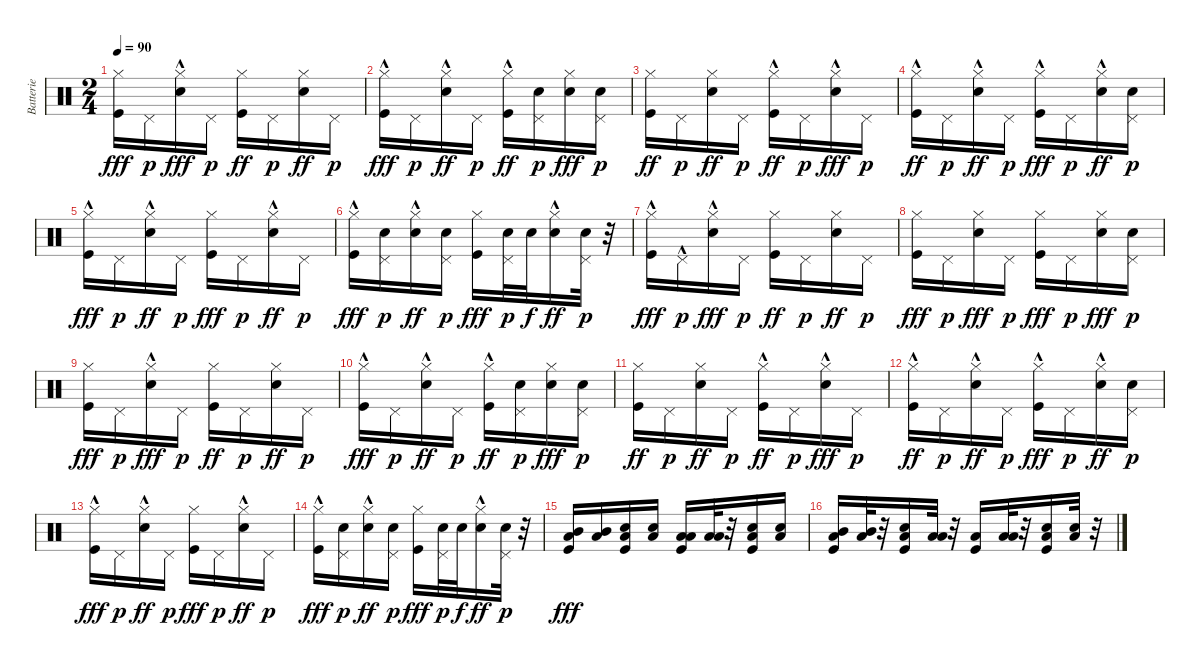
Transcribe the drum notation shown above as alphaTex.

\track ("Batterie" "Batterie") {instrument percussion}
\staff {score}
\articulation defaults
\ts (2 4)
\tempo 90
\clef neutral
\ks c
("Kick (hit)" "Hi-Hat (closed)").16{dy fff} "Pedal Hi-Hat (hit)".16{dy p} ("Snare (hit) 2" "Hi-Hat (closed)"{hac}).16{dy fff} "Pedal Hi-Hat (hit)".16{dy p} ("Kick (hit)" "Hi-Hat (closed)").16{dy ff} "Pedal Hi-Hat (hit)".16{dy p} ("Snare (hit) 2" "Hi-Hat (closed)").16{dy ff} "Pedal Hi-Hat (hit)".16{dy p} |
("Kick (hit)" "Hi-Hat (closed)"{hac}).16{dy fff} "Pedal Hi-Hat (hit)".16{dy p} ("Snare (hit) 2" "Hi-Hat (closed)"{hac}).16{dy ff} "Pedal Hi-Hat (hit)".16{dy p} ("Kick (hit)" "Hi-Hat (closed)"{hac}).16{dy ff} ("Snare (hit) 2" "Pedal Hi-Hat (hit)").16{dy p} ("Snare (hit) 2" "Hi-Hat (closed)").16{dy fff} ("Snare (hit) 2" "Pedal Hi-Hat (hit)").16{dy p} |
("Kick (hit)" "Hi-Hat (closed)").16{dy ff} "Pedal Hi-Hat (hit)".16{dy p} ("Snare (hit) 2" "Hi-Hat (closed)").16{dy ff} "Pedal Hi-Hat (hit)".16{dy p} ("Kick (hit)" "Hi-Hat (closed)"{hac}).16{dy ff} "Pedal Hi-Hat (hit)".16{dy p} ("Snare (hit) 2" "Hi-Hat (closed)"{hac}).16{dy fff} "Pedal Hi-Hat (hit)".16{dy p} |
("Kick (hit)" "Hi-Hat (closed)"{hac}).16{dy ff} "Pedal Hi-Hat (hit)".16{dy p} ("Snare (hit) 2" "Hi-Hat (closed)"{hac}).16{dy ff} "Pedal Hi-Hat (hit)".16{dy p} ("Kick (hit)" "Hi-Hat (closed)"{hac}).16{dy fff} "Pedal Hi-Hat (hit)".16{dy p} ("Snare (hit) 2" "Hi-Hat (closed)"{hac}).16{dy ff} ("Snare (hit) 2" "Pedal Hi-Hat (hit)").16{dy p} |
("Kick (hit)" "Hi-Hat (closed)"{hac}).16{dy fff} "Pedal Hi-Hat (hit)".16{dy p} ("Snare (hit) 2" "Hi-Hat (closed)"{hac}).16{dy ff} "Pedal Hi-Hat (hit)".16{dy p} ("Kick (hit)" "Hi-Hat (closed)").16{dy fff} "Pedal Hi-Hat (hit)".16{dy p} ("Snare (hit) 2" "Hi-Hat (closed)"{hac}).16{dy ff} "Pedal Hi-Hat (hit)".16{dy p} |
("Kick (hit)" "Hi-Hat (closed)"{hac}).16{dy fff} ("Snare (hit) 2" "Pedal Hi-Hat (hit)").16{dy p} ("Snare (hit) 2" "Hi-Hat (closed)"{hac}).16{dy ff} ("Snare (hit) 2" "Pedal Hi-Hat (hit)").16{dy p} ("Kick (hit)" "Hi-Hat (closed)").16{dy fff} ("Snare (hit) 2" "Pedal Hi-Hat (hit)").32{dy p} "Snare (hit) 2".32{dy f} ("Snare (hit) 2" "Hi-Hat (closed)"{hac}).16{dy ff} ("Snare (hit) 2" "Pedal Hi-Hat (hit)").32{dy p} r.32 |
("Kick (hit)" "Hi-Hat (closed)"{hac}).16{dy fff} "Pedal Hi-Hat (hit)"{hac}.16{dy p} ("Snare (hit) 2" "Hi-Hat (closed)"{hac}).16{dy fff} "Pedal Hi-Hat (hit)".16{dy p} ("Kick (hit)" "Hi-Hat (closed)").16{dy ff} "Pedal Hi-Hat (hit)".16{dy p} ("Snare (hit) 2" "Hi-Hat (closed)").16{dy ff} "Pedal Hi-Hat (hit)".16{dy p} |
("Kick (hit)" "Hi-Hat (closed)").16{dy fff} "Pedal Hi-Hat (hit)".16{dy p} ("Snare (hit) 2" "Hi-Hat (closed)").16{dy fff} "Pedal Hi-Hat (hit)".16{dy p} ("Kick (hit)" "Hi-Hat (closed)").16{dy fff} "Pedal Hi-Hat (hit)".16{dy p} ("Snare (hit) 2" "Hi-Hat (closed)").16{dy fff} ("Snare (hit) 2" "Pedal Hi-Hat (hit)").16{dy p} |
("Kick (hit)" "Hi-Hat (closed)").16{dy fff} "Pedal Hi-Hat (hit)".16{dy p} ("Snare (hit) 2" "Hi-Hat (closed)"{hac}).16{dy fff} "Pedal Hi-Hat (hit)".16{dy p} ("Kick (hit)" "Hi-Hat (closed)").16{dy ff} "Pedal Hi-Hat (hit)".16{dy p} ("Snare (hit) 2" "Hi-Hat (closed)").16{dy ff} "Pedal Hi-Hat (hit)".16{dy p} |
("Kick (hit)" "Hi-Hat (closed)"{hac}).16{dy fff} "Pedal Hi-Hat (hit)".16{dy p} ("Snare (hit) 2" "Hi-Hat (closed)"{hac}).16{dy ff} "Pedal Hi-Hat (hit)".16{dy p} ("Kick (hit)" "Hi-Hat (closed)"{hac}).16{dy ff} ("Snare (hit) 2" "Pedal Hi-Hat (hit)").16{dy p} ("Snare (hit) 2" "Hi-Hat (closed)").16{dy fff} ("Snare (hit) 2" "Pedal Hi-Hat (hit)").16{dy p} |
("Kick (hit)" "Hi-Hat (closed)").16{dy ff} "Pedal Hi-Hat (hit)".16{dy p} ("Snare (hit) 2" "Hi-Hat (closed)").16{dy ff} "Pedal Hi-Hat (hit)".16{dy p} ("Kick (hit)" "Hi-Hat (closed)"{hac}).16{dy ff} "Pedal Hi-Hat (hit)".16{dy p} ("Snare (hit) 2" "Hi-Hat (closed)"{hac}).16{dy fff} "Pedal Hi-Hat (hit)".16{dy p} |
("Kick (hit)" "Hi-Hat (closed)"{hac}).16{dy ff} "Pedal Hi-Hat (hit)".16{dy p} ("Snare (hit) 2" "Hi-Hat (closed)"{hac}).16{dy ff} "Pedal Hi-Hat (hit)".16{dy p} ("Kick (hit)" "Hi-Hat (closed)"{hac}).16{dy fff} "Pedal Hi-Hat (hit)".16{dy p} ("Snare (hit) 2" "Hi-Hat (closed)"{hac}).16{dy ff} ("Snare (hit) 2" "Pedal Hi-Hat (hit)").16{dy p} |
("Kick (hit)" "Hi-Hat (closed)"{hac}).16{dy fff} "Pedal Hi-Hat (hit)".16{dy p} ("Snare (hit) 2" "Hi-Hat (closed)"{hac}).16{dy ff} "Pedal Hi-Hat (hit)".16{dy p} ("Kick (hit)" "Hi-Hat (closed)").16{dy fff} "Pedal Hi-Hat (hit)".16{dy p} ("Snare (hit) 2" "Hi-Hat (closed)"{hac}).16{dy ff} "Pedal Hi-Hat (hit)".16{dy p} |
("Kick (hit)" "Hi-Hat (closed)"{hac}).16{dy fff} ("Snare (hit) 2" "Pedal Hi-Hat (hit)").16{dy p} ("Snare (hit) 2" "Hi-Hat (closed)"{hac}).16{dy ff} ("Snare (hit) 2" "Pedal Hi-Hat (hit)").16{dy p} ("Kick (hit)" "Hi-Hat (closed)").16{dy fff} ("Snare (hit) 2" "Pedal Hi-Hat (hit)").32{dy p} "Snare (hit) 2".32{dy f} ("Snare (hit) 2" "Hi-Hat (closed)"{hac}).16{dy ff} ("Snare (hit) 2" "Pedal Hi-Hat (hit)").32{dy p} r.32 |
("Kick (hit)" "Low Floor Tom (hit)" "Mid Tom (hit)").16{dy fff} ("Low Floor Tom (hit)" "Mid Tom (hit)").16 ("Kick (hit)" "Low Floor Tom (hit)" "Snare (hit) 2").16 ("Low Floor Tom (hit)" "Snare (hit) 2").16 ("Kick (hit)" "Low Floor Tom (hit)" "Low Floor Tom (hit)").16 ("Low Floor Tom (hit)" "Low Floor Tom (hit)").32 r.32 ("Kick (hit)" "Low Floor Tom (hit)" "Snare (hit) 2").16 ("Low Floor Tom (hit)" "Snare (hit) 2").16 |
("Kick (hit)" "Low Floor Tom (hit)" "Mid Tom (hit)").16 ("Low Floor Tom (hit)" "Mid Tom (hit)").32 r.32 ("Kick (hit)" "Low Floor Tom (hit)" "Snare (hit) 2").16 ("Low Floor Tom (hit)" "Low Floor Tom (hit)").32 r.32 ("Kick (hit)" "Low Floor Tom (hit)").16 ("Low Floor Tom (hit)" "Low Floor Tom (hit)").32 r.32 ("Kick (hit)" "Low Floor Tom (hit)" "Snare (hit) 2").16 ("Low Floor Tom (hit)" "Snare (hit) 2").32 r.32
